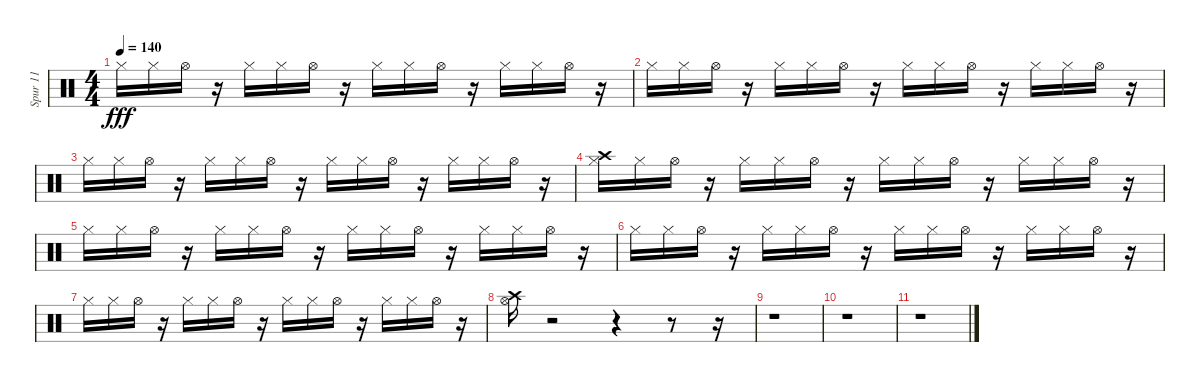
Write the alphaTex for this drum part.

\track ("Spur 11" "Spur 11") {instrument percussion}
\staff {score}
\articulation defaults
\ts (4 4)
\tempo 140
\clef neutral
\ks c "Hi-Hat (closed)".16{dy fff} "Hi-Hat (closed)".16 "Hi-Hat (open)".16
r.16 "Hi-Hat (closed)".16 "Hi-Hat (closed)".16 "Hi-Hat (open)".16 r.16 "Hi-Hat (closed)".16 "Hi-Hat (closed)".16 "Hi-Hat (open)".16 r.16 "Hi-Hat (closed)".16 "Hi-Hat (closed)".16 "Hi-Hat (open)".16 r.16 |
"Hi-Hat (closed)".16 "Hi-Hat (closed)".16 "Hi-Hat (open)".16 r.16 "Hi-Hat (closed)".16 "Hi-Hat (closed)".16 "Hi-Hat (open)".16 r.16 "Hi-Hat (closed)".16 "Hi-Hat (closed)".16 "Hi-Hat (open)".16 r.16 "Hi-Hat (closed)".16 "Hi-Hat (closed)".16 "Hi-Hat (open)".16 r.16 |
"Hi-Hat (closed)".16 "Hi-Hat (closed)".16 "Hi-Hat (open)".16 r.16 "Hi-Hat (closed)".16 "Hi-Hat (closed)".16 "Hi-Hat (open)".16 r.16 "Hi-Hat (closed)".16 "Hi-Hat (closed)".16 "Hi-Hat (open)".16 r.16 "Hi-Hat (closed)".16 "Hi-Hat (closed)".16 "Hi-Hat (open)".16 r.16 |
("Hi-Hat (closed)" "Crash high (hit)").16 "Hi-Hat (closed)".16 "Hi-Hat (open)".16 r.16 "Hi-Hat (closed)".16 "Hi-Hat (closed)".16 "Hi-Hat (open)".16 r.16 "Hi-Hat (closed)".16 "Hi-Hat (closed)".16 "Hi-Hat (open)".16 r.16 "Hi-Hat (closed)".16 "Hi-Hat (closed)".16 "Hi-Hat (open)".16 r.16 |
"Hi-Hat (closed)".16 "Hi-Hat (closed)".16 "Hi-Hat (open)".16 r.16 "Hi-Hat (closed)".16 "Hi-Hat (closed)".16 "Hi-Hat (open)".16 r.16 "Hi-Hat (closed)".16 "Hi-Hat (closed)".16 "Hi-Hat (open)".16 r.16 "Hi-Hat (closed)".16 "Hi-Hat (closed)".16 "Hi-Hat (open)".16 r.16 |
"Hi-Hat (closed)".16 "Hi-Hat (closed)".16 "Hi-Hat (open)".16 r.16 "Hi-Hat (closed)".16 "Hi-Hat (closed)".16 "Hi-Hat (open)".16 r.16 "Hi-Hat (closed)".16 "Hi-Hat (closed)".16 "Hi-Hat (open)".16 r.16 "Hi-Hat (closed)".16 "Hi-Hat (closed)".16 "Hi-Hat (open)".16 r.16 |
"Hi-Hat (closed)".16 "Hi-Hat (closed)".16 "Hi-Hat (open)".16 r.16 "Hi-Hat (closed)".16 "Hi-Hat (closed)".16 "Hi-Hat (open)".16 r.16 "Hi-Hat (closed)".16 "Hi-Hat (closed)".16 "Hi-Hat (open)".16 r.16 "Hi-Hat (closed)".16 "Hi-Hat (closed)".16 "Hi-Hat (open)".16 r.16 |
("Crash high (hit)" "Hi-Hat (open)").16 r.2 r.4 r.8 r.16 |
r.1 |
r.1 |
r.1
